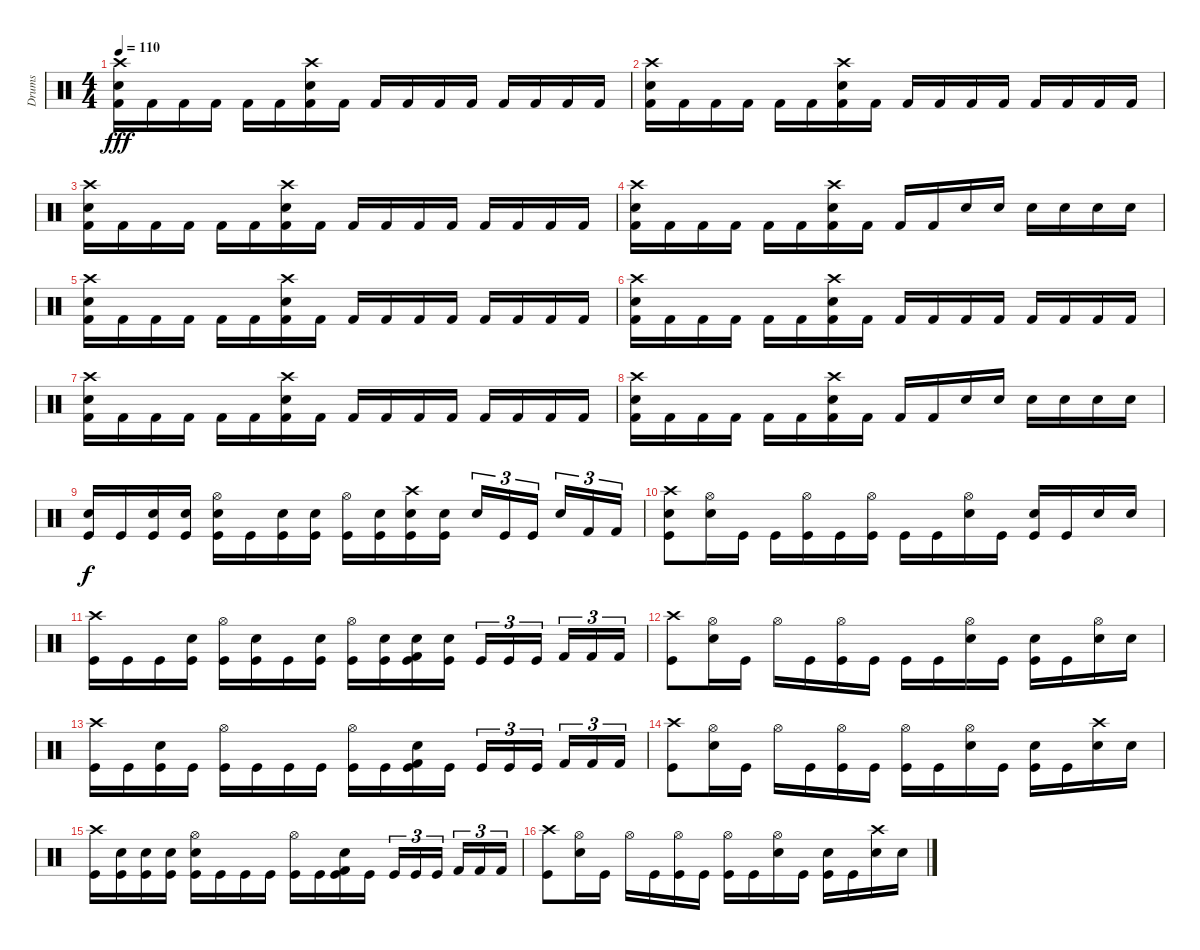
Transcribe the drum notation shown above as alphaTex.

\track ("Drums" "Drums") {instrument percussion}
\staff {score}
\articulation defaults
\ts (4 4)
\tempo 110
\clef neutral
\ks c
("Crash high (hit)" "Snare (hit) 2" "Kick (hit) 2").16{dy fff} "Kick (hit) 2".16 "Kick (hit) 2".16 "Kick (hit) 2".16 "Kick (hit) 2".16 "Kick (hit) 2".16 ("Crash high (hit)" "Snare (hit) 2" "Kick (hit) 2").16 "Kick (hit) 2".16 "Kick (hit) 2".16 "Kick (hit) 2".16 "Kick (hit) 2".16 "Kick (hit) 2".16 "Kick (hit) 2".16 "Kick (hit) 2".16 "Kick (hit) 2".16 "Kick (hit) 2".16 |
("Crash high (hit)" "Snare (hit) 2" "Kick (hit) 2").16 "Kick (hit) 2".16 "Kick (hit) 2".16 "Kick (hit) 2".16 "Kick (hit) 2".16 "Kick (hit) 2".16 ("Crash high (hit)" "Snare (hit) 2" "Kick (hit) 2").16 "Kick (hit) 2".16 "Kick (hit) 2".16 "Kick (hit) 2".16 "Kick (hit) 2".16 "Kick (hit) 2".16 "Kick (hit) 2".16 "Kick (hit) 2".16 "Kick (hit) 2".16 "Kick (hit) 2".16 |
("Crash high (hit)" "Snare (hit) 2" "Kick (hit) 2").16 "Kick (hit) 2".16 "Kick (hit) 2".16 "Kick (hit) 2".16 "Kick (hit) 2".16 "Kick (hit) 2".16 ("Crash high (hit)" "Snare (hit) 2" "Kick (hit) 2").16 "Kick (hit) 2".16 "Kick (hit) 2".16 "Kick (hit) 2".16 "Kick (hit) 2".16 "Kick (hit) 2".16 "Kick (hit) 2".16 "Kick (hit) 2".16 "Kick (hit) 2".16 "Kick (hit) 2".16 |
("Crash high (hit)" "Snare (hit) 2" "Kick (hit) 2").16 "Kick (hit) 2".16 "Kick (hit) 2".16 "Kick (hit) 2".16 "Kick (hit) 2".16 "Kick (hit) 2".16 ("Crash high (hit)" "Snare (hit) 2" "Kick (hit) 2").16 "Kick (hit) 2".16 "Kick (hit) 2".16 "Kick (hit) 2".16 "Snare (hit) 2".16 "Snare (hit) 2".16 "Snare (hit) 2".16 "Snare (hit) 2".16 "Snare (hit) 2".16 "Snare (hit) 2".16 |
("Crash high (hit)" "Snare (hit) 2" "Kick (hit) 2").16 "Kick (hit) 2".16 "Kick (hit) 2".16 "Kick (hit) 2".16 "Kick (hit) 2".16 "Kick (hit) 2".16 ("Crash high (hit)" "Snare (hit) 2" "Kick (hit) 2").16 "Kick (hit) 2".16 "Kick (hit) 2".16 "Kick (hit) 2".16 "Kick (hit) 2".16 "Kick (hit) 2".16 "Kick (hit) 2".16 "Kick (hit) 2".16 "Kick (hit) 2".16 "Kick (hit) 2".16 |
("Crash high (hit)" "Snare (hit) 2" "Kick (hit) 2").16 "Kick (hit) 2".16 "Kick (hit) 2".16 "Kick (hit) 2".16 "Kick (hit) 2".16 "Kick (hit) 2".16 ("Crash high (hit)" "Snare (hit) 2" "Kick (hit) 2").16 "Kick (hit) 2".16 "Kick (hit) 2".16 "Kick (hit) 2".16 "Kick (hit) 2".16 "Kick (hit) 2".16 "Kick (hit) 2".16 "Kick (hit) 2".16 "Kick (hit) 2".16 "Kick (hit) 2".16 |
("Crash high (hit)" "Snare (hit) 2" "Kick (hit) 2").16 "Kick (hit) 2".16 "Kick (hit) 2".16 "Kick (hit) 2".16 "Kick (hit) 2".16 "Kick (hit) 2".16 ("Crash high (hit)" "Snare (hit) 2" "Kick (hit) 2").16 "Kick (hit) 2".16 "Kick (hit) 2".16 "Kick (hit) 2".16 "Kick (hit) 2".16 "Kick (hit) 2".16 "Kick (hit) 2".16 "Kick (hit) 2".16 "Kick (hit) 2".16 "Kick (hit) 2".16 |
("Crash high (hit)" "Snare (hit) 2" "Kick (hit) 2").16 "Kick (hit) 2".16 "Kick (hit) 2".16 "Kick (hit) 2".16 "Kick (hit) 2".16 "Kick (hit) 2".16 ("Crash high (hit)" "Snare (hit) 2" "Kick (hit) 2").16 "Kick (hit) 2".16 "Kick (hit) 2".16 "Kick (hit) 2".16 "Snare (hit) 2".16 "Snare (hit) 2".16 "Snare (hit) 2".16 "Snare (hit) 2".16 "Snare (hit) 2".16 "Snare (hit) 2".16 |
("Snare (hit) 2" "Kick (hit)").16{dy f} "Kick (hit)".16 ("Snare (hit) 2" "Kick (hit)").16 ("Snare (hit) 2" "Kick (hit)").16 ("Hi-Hat (open)" "Snare (hit) 2" "Kick (hit)").16 "Kick (hit)".16 ("Snare (hit) 2" "Kick (hit)").16 ("Snare (hit) 2" "Kick (hit)").16 ("Hi-Hat (open)" "Kick (hit)").16 ("Snare (hit) 2" "Kick (hit)").16 ("Crash high (hit)" "Snare (hit) 2" "Kick (hit)").16 ("Snare (hit) 2" "Kick (hit)").16 "Electric Snare (hit)".16{tu (3 2)} "Kick (hit)".16{tu (3 2)} "Kick (hit)".16{tu (3 2)} "Electric Snare (hit)".16{tu (3 2)} "Kick (hit) 2".16{tu (3 2)} "Kick (hit) 2".16{tu (3 2)} |
("Crash high (hit)" "Snare (hit) 2" "Kick (hit)").8 ("Hi-Hat (open)" "Snare (hit) 2").16 "Kick (hit)".16 "Kick (hit)".16 ("Hi-Hat (open)" "Kick (hit)").16 "Kick (hit)".16 ("Hi-Hat (open)" "Kick (hit)").16 "Kick (hit)".16 "Kick (hit)".16 ("Hi-Hat (open)" "Snare (hit) 2").16 "Kick (hit)".16 ("Snare (hit) 2" "Kick (hit)").16 "Kick (hit)".16 "Snare (hit) 2".16 "Snare (hit) 2".16 |
("Crash high (hit)" "Kick (hit)").16 "Kick (hit)".16 "Kick (hit)".16 ("Snare (hit) 2" "Kick (hit)").16 ("Hi-Hat (open)" "Kick (hit)").16 ("Snare (hit) 2" "Kick (hit)").16 "Kick (hit)".16 ("Snare (hit) 2" "Kick (hit)").16 ("Hi-Hat (open)" "Kick (hit)").16 ("Snare (hit) 2" "Kick (hit)").16 ("Kick (hit) 2" "Snare (hit) 2" "Kick (hit)").16 ("Snare (hit) 2" "Kick (hit)").16 "Kick (hit)".16{tu (3 2)} "Kick (hit)".16{tu (3 2)} "Kick (hit)".16{tu (3 2)} "Kick (hit) 2".16{tu (3 2)} "Kick (hit) 2".16{tu (3 2)} "Kick (hit) 2".16{tu (3 2)} |
("Crash high (hit)" "Kick (hit)").8 ("Hi-Hat (open)" "Snare (hit) 2").16 "Kick (hit)".16 "Hi-Hat (open)".16 "Kick (hit)".16 ("Hi-Hat (open)" "Kick (hit)").16 "Kick (hit)".16 "Kick (hit)".16 "Kick (hit)".16 ("Hi-Hat (open)" "Snare (hit) 2").16 "Kick (hit)".16 ("Snare (hit) 2" "Kick (hit)").16 "Kick (hit)".16 ("Hi-Hat (open)" "Snare (hit) 2").16 "Snare (hit) 2".16 |
("Crash high (hit)" "Kick (hit)").16 "Kick (hit)".16 ("Snare (hit) 2" "Kick (hit)").16 "Kick (hit)".16 ("Hi-Hat (open)" "Kick (hit)").16 "Kick (hit)".16 "Kick (hit)".16 "Kick (hit)".16 ("Hi-Hat (open)" "Kick (hit)").16 "Kick (hit)".16 ("Kick (hit) 2" "Snare (hit) 2" "Kick (hit)").16 "Kick (hit)".16 "Kick (hit)".16{tu (3 2)} "Kick (hit)".16{tu (3 2)} "Kick (hit)".16{tu (3 2)} "Kick (hit) 2".16{tu (3 2)} "Kick (hit) 2".16{tu (3 2)} "Kick (hit) 2".16{tu (3 2)} |
("Crash high (hit)" "Kick (hit)").8 ("Hi-Hat (open)" "Snare (hit) 2").16 "Kick (hit)".16 "Hi-Hat (open)".16 "Kick (hit)".16 ("Hi-Hat (open)" "Kick (hit)").16 "Kick (hit)".16 ("Hi-Hat (open)" "Kick (hit)").16 "Kick (hit)".16 ("Hi-Hat (open)" "Snare (hit) 2").16 "Kick (hit)".16 ("Snare (hit) 2" "Kick (hit)").16 "Kick (hit)".16 ("Crash high (hit)" "Snare (hit) 2").16 "Snare (hit) 2".16 |
("Crash high (hit)" "Kick (hit)").16 ("Snare (hit) 2" "Kick (hit)").16 ("Snare (hit) 2" "Kick (hit)").16 ("Snare (hit) 2" "Kick (hit)").16 ("Hi-Hat (open)" "Snare (hit) 2" "Kick (hit)").16 "Kick (hit)".16 "Kick (hit)".16 "Kick (hit)".16 ("Hi-Hat (open)" "Kick (hit)").16 "Kick (hit)".16 ("Kick (hit) 2" "Snare (hit) 2" "Kick (hit)").16 "Kick (hit)".16 "Kick (hit)".16{tu (3 2)} "Kick (hit)".16{tu (3 2)} "Kick (hit)".16{tu (3 2)} "Kick (hit) 2".16{tu (3 2)} "Kick (hit) 2".16{tu (3 2)} "Kick (hit) 2".16{tu (3 2)} |
("Crash high (hit)" "Kick (hit)").8 ("Hi-Hat (open)" "Snare (hit) 2").16 "Kick (hit)".16 "Hi-Hat (open)".16 "Kick (hit)".16 ("Hi-Hat (open)" "Kick (hit)").16 "Kick (hit)".16 ("Hi-Hat (open)" "Kick (hit)").16 "Kick (hit)".16 ("Hi-Hat (open)" "Snare (hit) 2").16 "Kick (hit)".16 ("Snare (hit) 2" "Kick (hit)").16 "Kick (hit)".16 ("Crash high (hit)" "Snare (hit) 2").16 "Snare (hit) 2".16
